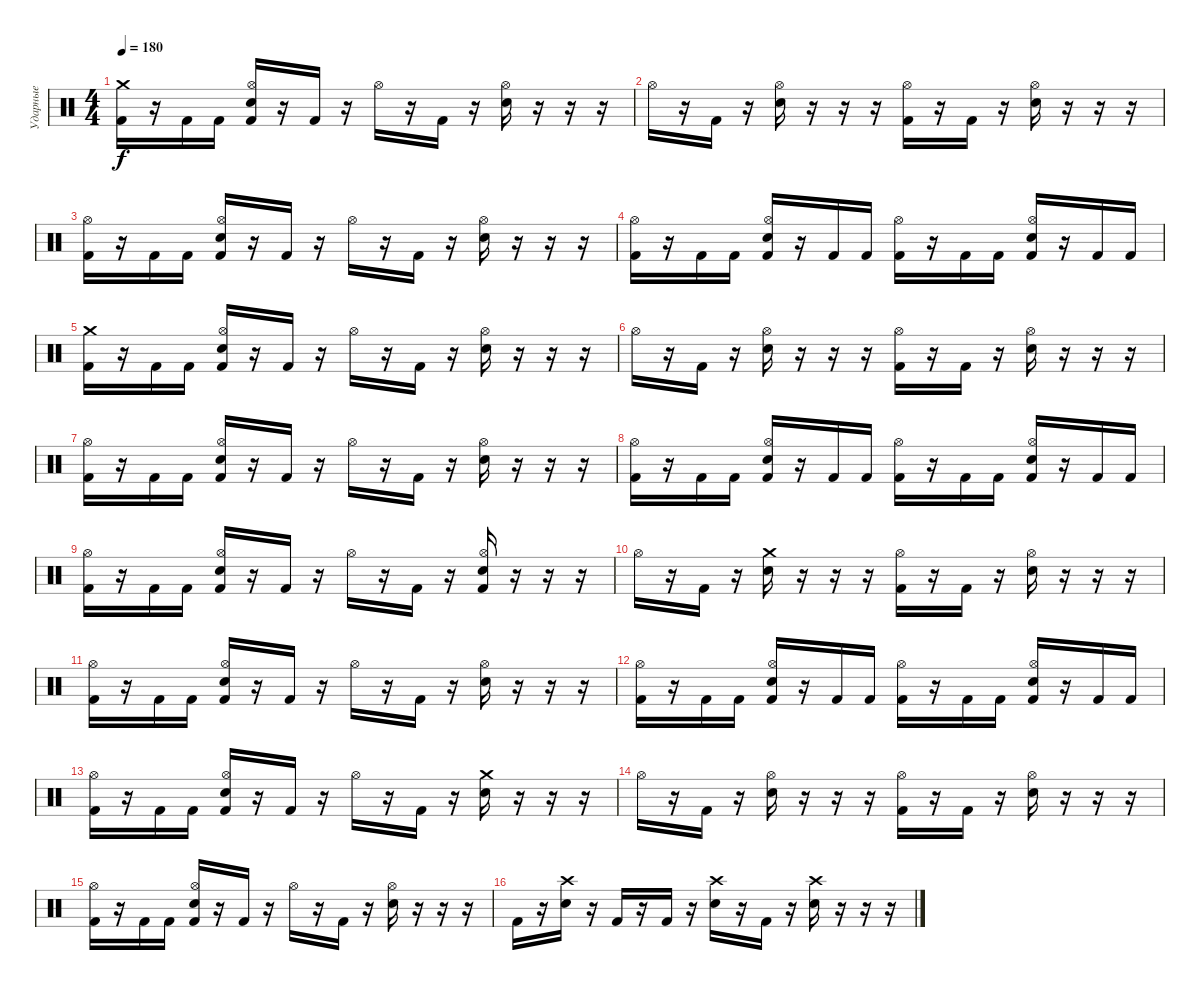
\track ("Ударные" "Ударные") {instrument percussion}
\staff {score}
\articulation defaults
\ts (4 4)
\tempo 180
\clef neutral
\ks c
("Crash medium (hit)" "Kick (hit) 2").16{dy f} r.16 "Kick (hit) 2".16 "Kick (hit) 2".16 ("Hi-Hat (open)" "Electric Snare (hit)" "Kick (hit) 2").16 r.16 "Kick (hit) 2".16 r.16 "Hi-Hat (open)".16 r.16 "Kick (hit) 2".16 r.16 ("Hi-Hat (open)" "Electric Snare (hit)").16 r.16 r.16 r.16 |
"Hi-Hat (open)".16 r.16 "Kick (hit) 2".16 r.16 ("Hi-Hat (open)" "Electric Snare (hit)").16 r.16 r.16 r.16 ("Hi-Hat (open)" "Kick (hit) 2").16 r.16 "Kick (hit) 2".16 r.16 ("Hi-Hat (open)" "Electric Snare (hit)").16 r.16 r.16 r.16 |
("Hi-Hat (open)" "Kick (hit) 2").16 r.16 "Kick (hit) 2".16 "Kick (hit) 2".16 ("Hi-Hat (open)" "Electric Snare (hit)" "Kick (hit) 2").16 r.16 "Kick (hit) 2".16 r.16 "Hi-Hat (open)".16 r.16 "Kick (hit) 2".16 r.16 ("Hi-Hat (open)" "Electric Snare (hit)").16 r.16 r.16 r.16 |
("Hi-Hat (open)" "Kick (hit) 2").16 r.16 "Kick (hit) 2".16 "Kick (hit) 2".16 ("Hi-Hat (open)" "Electric Snare (hit)" "Kick (hit) 2").16 r.16 "Kick (hit) 2".16 "Kick (hit) 2".16 ("Hi-Hat (open)" "Kick (hit) 2").16 r.16 "Kick (hit) 2".16 "Kick (hit) 2".16 ("Hi-Hat (open)" "Electric Snare (hit)" "Kick (hit) 2").16 r.16 "Kick (hit) 2".16 "Kick (hit) 2".16 |
("Crash medium (hit)" "Kick (hit) 2").16 r.16 "Kick (hit) 2".16 "Kick (hit) 2".16 ("Hi-Hat (open)" "Electric Snare (hit)" "Kick (hit) 2").16 r.16 "Kick (hit) 2".16 r.16 "Hi-Hat (open)".16 r.16 "Kick (hit) 2".16 r.16 ("Hi-Hat (open)" "Electric Snare (hit)").16 r.16 r.16 r.16 |
"Hi-Hat (open)".16 r.16 "Kick (hit) 2".16 r.16 ("Hi-Hat (open)" "Electric Snare (hit)").16 r.16 r.16 r.16 ("Hi-Hat (open)" "Kick (hit) 2").16 r.16 "Kick (hit) 2".16 r.16 ("Hi-Hat (open)" "Electric Snare (hit)").16 r.16 r.16 r.16 |
("Hi-Hat (open)" "Kick (hit) 2").16 r.16 "Kick (hit) 2".16 "Kick (hit) 2".16 ("Hi-Hat (open)" "Electric Snare (hit)" "Kick (hit) 2").16 r.16 "Kick (hit) 2".16 r.16 "Hi-Hat (open)".16 r.16 "Kick (hit) 2".16 r.16 ("Hi-Hat (open)" "Electric Snare (hit)").16 r.16 r.16 r.16 |
("Hi-Hat (open)" "Kick (hit) 2").16 r.16 "Kick (hit) 2".16 "Kick (hit) 2".16 ("Hi-Hat (open)" "Electric Snare (hit)" "Kick (hit) 2").16 r.16 "Kick (hit) 2".16 "Kick (hit) 2".16 ("Hi-Hat (open)" "Kick (hit) 2").16 r.16 "Kick (hit) 2".16 "Kick (hit) 2".16 ("Hi-Hat (open)" "Electric Snare (hit)" "Kick (hit) 2").16 r.16 "Kick (hit) 2".16 "Kick (hit) 2".16 |
("Hi-Hat (open)" "Kick (hit) 2").16 r.16 "Kick (hit) 2".16 "Kick (hit) 2".16 ("Hi-Hat (open)" "Electric Snare (hit)" "Kick (hit) 2").16 r.16 "Kick (hit) 2".16 r.16 "Hi-Hat (open)".16 r.16 "Kick (hit) 2".16 r.16 ("Hi-Hat (open)" "Electric Snare (hit)" "Kick (hit) 2").16 r.16 r.16 r.16 |
"Hi-Hat (open)".16 r.16 "Kick (hit) 2".16 r.16 ("Crash medium (hit)" "Electric Snare (hit)").16 r.16 r.16 r.16 ("Hi-Hat (open)" "Kick (hit) 2").16 r.16 "Kick (hit) 2".16 r.16 ("Hi-Hat (open)" "Electric Snare (hit)").16 r.16 r.16 r.16 |
("Hi-Hat (open)" "Kick (hit) 2").16 r.16 "Kick (hit) 2".16 "Kick (hit) 2".16 ("Hi-Hat (open)" "Electric Snare (hit)" "Kick (hit) 2").16 r.16 "Kick (hit) 2".16 r.16 "Hi-Hat (open)".16 r.16 "Kick (hit) 2".16 r.16 ("Hi-Hat (open)" "Electric Snare (hit)").16 r.16 r.16 r.16 |
("Hi-Hat (open)" "Kick (hit) 2").16 r.16 "Kick (hit) 2".16 "Kick (hit) 2".16 ("Hi-Hat (open)" "Electric Snare (hit)" "Kick (hit) 2").16 r.16 "Kick (hit) 2".16 "Kick (hit) 2".16 ("Hi-Hat (open)" "Kick (hit) 2").16 r.16 "Kick (hit) 2".16 "Kick (hit) 2".16 ("Hi-Hat (open)" "Electric Snare (hit)" "Kick (hit) 2").16 r.16 "Kick (hit) 2".16 "Kick (hit) 2".16 |
("Hi-Hat (open)" "Kick (hit) 2").16 r.16 "Kick (hit) 2".16 "Kick (hit) 2".16 ("Hi-Hat (open)" "Electric Snare (hit)" "Kick (hit) 2").16 r.16 "Kick (hit) 2".16 r.16 "Hi-Hat (open)".16 r.16 "Kick (hit) 2".16 r.16 ("Crash medium (hit)" "Electric Snare (hit)").16 r.16 r.16 r.16 |
"Hi-Hat (open)".16 r.16 "Kick (hit) 2".16 r.16 ("Hi-Hat (open)" "Electric Snare (hit)").16 r.16 r.16 r.16 ("Hi-Hat (open)" "Kick (hit) 2").16 r.16 "Kick (hit) 2".16 r.16 ("Hi-Hat (open)" "Electric Snare (hit)").16 r.16 r.16 r.16 |
("Hi-Hat (open)" "Kick (hit) 2").16 r.16 "Kick (hit) 2".16 "Kick (hit) 2".16 ("Hi-Hat (open)" "Electric Snare (hit)" "Kick (hit) 2").16 r.16 "Kick (hit) 2".16 r.16 "Hi-Hat (open)".16 r.16 "Kick (hit) 2".16 r.16 ("Hi-Hat (open)" "Electric Snare (hit)").16 r.16 r.16 r.16 |
"Kick (hit) 2".16 r.16 ("Crash high (hit)" "Electric Snare (hit)").16 r.16 "Kick (hit) 2".16 r.16 "Kick (hit) 2".16 r.16 ("Crash high (hit)" "Electric Snare (hit)").16 r.16 "Kick (hit) 2".16 r.16 ("Crash high (hit)" "Electric Snare (hit)").16 r.16 r.16 r.16
